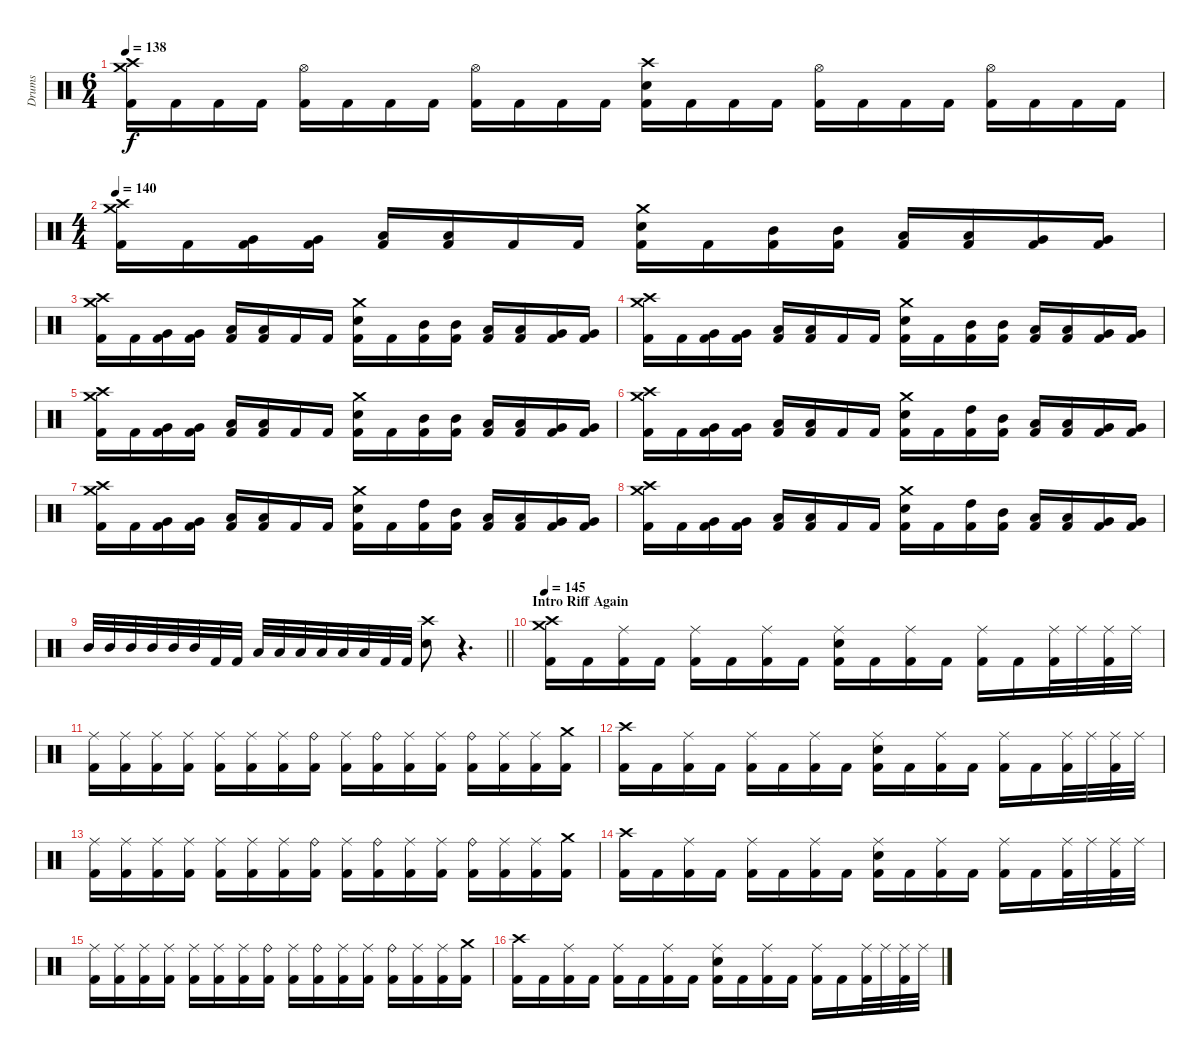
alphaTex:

\track ("Drums" "Drums") {instrument percussion}
\staff {score}
\articulation defaults
\ts (6 4)
\tempo 138
\clef neutral
\ks c
("Crash medium (hit)" "Crash high (hit)" "Kick (hit) 2").16{dy f} "Kick (hit) 2".16 "Kick (hit) 2".16 "Kick (hit) 2".16 ("Hi-Hat (open)" "Kick (hit) 2").16 "Kick (hit) 2".16 "Kick (hit) 2".16 "Kick (hit) 2".16 ("Hi-Hat (open)" "Kick (hit) 2").16 "Kick (hit) 2".16 "Kick (hit) 2".16 "Kick (hit) 2".16 ("Crash high (hit)" "Electric Snare (hit)" "Kick (hit) 2").16 "Kick (hit) 2".16 "Kick (hit) 2".16 "Kick (hit) 2".16 ("Hi-Hat (open)" "Kick (hit) 2").16 "Kick (hit) 2".16 "Kick (hit) 2".16 "Kick (hit) 2".16 ("Hi-Hat (open)" "Kick (hit) 2").16 "Kick (hit) 2".16 "Kick (hit) 2".16 "Kick (hit) 2".16 |
\ts (4 4)
\tempo 140
("Crash medium (hit)" "Crash high (hit)" "Kick (hit) 2").16 "Kick (hit) 2".16 ("Very Low Tom (hit)" "Kick (hit) 2").16 ("Very Low Tom (hit)" "Kick (hit) 2").16 ("Low Tom (hit)" "Kick (hit) 2").16 ("Low Tom (hit)" "Kick (hit) 2").16 "Kick (hit) 2".16 "Kick (hit) 2".16 ("Crash medium (hit)" "Electric Snare (hit)" "Kick (hit) 2").16 "Kick (hit) 2".16 ("Mid Tom (hit)" "Kick (hit) 2").16 ("Mid Tom (hit)" "Kick (hit) 2").16 ("Low Tom (hit)" "Kick (hit) 2").16 ("Low Tom (hit)" "Kick (hit) 2").16 ("Very Low Tom (hit)" "Kick (hit) 2").16 ("Very Low Tom (hit)" "Kick (hit) 2").16 |
("Crash medium (hit)" "Crash high (hit)" "Kick (hit) 2").16 "Kick (hit) 2".16 ("Very Low Tom (hit)" "Kick (hit) 2").16 ("Very Low Tom (hit)" "Kick (hit) 2").16 ("Low Tom (hit)" "Kick (hit) 2").16 ("Low Tom (hit)" "Kick (hit) 2").16 "Kick (hit) 2".16 "Kick (hit) 2".16 ("Crash medium (hit)" "Electric Snare (hit)" "Kick (hit) 2").16 "Kick (hit) 2".16 ("Mid Tom (hit)" "Kick (hit) 2").16 ("Mid Tom (hit)" "Kick (hit) 2").16 ("Low Tom (hit)" "Kick (hit) 2").16 ("Low Tom (hit)" "Kick (hit) 2").16 ("Very Low Tom (hit)" "Kick (hit) 2").16 ("Very Low Tom (hit)" "Kick (hit) 2").16 |
("Crash medium (hit)" "Crash high (hit)" "Kick (hit) 2").16 "Kick (hit) 2".16 ("Very Low Tom (hit)" "Kick (hit) 2").16 ("Very Low Tom (hit)" "Kick (hit) 2").16 ("Low Tom (hit)" "Kick (hit) 2").16 ("Low Tom (hit)" "Kick (hit) 2").16 "Kick (hit) 2".16 "Kick (hit) 2".16 ("Crash medium (hit)" "Electric Snare (hit)" "Kick (hit) 2").16 "Kick (hit) 2".16 ("Mid Tom (hit)" "Kick (hit) 2").16 ("Mid Tom (hit)" "Kick (hit) 2").16 ("Low Tom (hit)" "Kick (hit) 2").16 ("Low Tom (hit)" "Kick (hit) 2").16 ("Very Low Tom (hit)" "Kick (hit) 2").16 ("Very Low Tom (hit)" "Kick (hit) 2").16 |
("Crash medium (hit)" "Crash high (hit)" "Kick (hit) 2").16 "Kick (hit) 2".16 ("Very Low Tom (hit)" "Kick (hit) 2").16 ("Very Low Tom (hit)" "Kick (hit) 2").16 ("Low Tom (hit)" "Kick (hit) 2").16 ("Low Tom (hit)" "Kick (hit) 2").16 "Kick (hit) 2".16 "Kick (hit) 2".16 ("Crash medium (hit)" "Electric Snare (hit)" "Kick (hit) 2").16 "Kick (hit) 2".16 ("Mid Tom (hit)" "Kick (hit) 2").16 ("Mid Tom (hit)" "Kick (hit) 2").16 ("Low Tom (hit)" "Kick (hit) 2").16 ("Low Tom (hit)" "Kick (hit) 2").16 ("Very Low Tom (hit)" "Kick (hit) 2").16 ("Very Low Tom (hit)" "Kick (hit) 2").16 |
("Crash medium (hit)" "Crash high (hit)" "Kick (hit) 2").16 "Kick (hit) 2".16 ("Very Low Tom (hit)" "Kick (hit) 2").16 ("Very Low Tom (hit)" "Kick (hit) 2").16 ("Low Tom (hit)" "Kick (hit) 2").16 ("Low Tom (hit)" "Kick (hit) 2").16 "Kick (hit) 2".16 "Kick (hit) 2".16 ("Crash medium (hit)" "Electric Snare (hit)" "Kick (hit) 2").16 "Kick (hit) 2".16 ("High Tom (hit)" "Kick (hit) 2").16 ("Mid Tom (hit)" "Kick (hit) 2").16 ("Low Tom (hit)" "Kick (hit) 2").16 ("Low Tom (hit)" "Kick (hit) 2").16 ("Very Low Tom (hit)" "Kick (hit) 2").16 ("Very Low Tom (hit)" "Kick (hit) 2").16 |
("Crash medium (hit)" "Crash high (hit)" "Kick (hit) 2").16 "Kick (hit) 2".16 ("Very Low Tom (hit)" "Kick (hit) 2").16 ("Very Low Tom (hit)" "Kick (hit) 2").16 ("Low Tom (hit)" "Kick (hit) 2").16 ("Low Tom (hit)" "Kick (hit) 2").16 "Kick (hit) 2".16 "Kick (hit) 2".16 ("Crash medium (hit)" "Electric Snare (hit)" "Kick (hit) 2").16 "Kick (hit) 2".16 ("High Tom (hit)" "Kick (hit) 2").16 ("Mid Tom (hit)" "Kick (hit) 2").16 ("Low Tom (hit)" "Kick (hit) 2").16 ("Low Tom (hit)" "Kick (hit) 2").16 ("Very Low Tom (hit)" "Kick (hit) 2").16 ("Very Low Tom (hit)" "Kick (hit) 2").16 |
("Crash medium (hit)" "Crash high (hit)" "Kick (hit) 2").16 "Kick (hit) 2".16 ("Very Low Tom (hit)" "Kick (hit) 2").16 ("Very Low Tom (hit)" "Kick (hit) 2").16 ("Low Tom (hit)" "Kick (hit) 2").16 ("Low Tom (hit)" "Kick (hit) 2").16 "Kick (hit) 2".16 "Kick (hit) 2".16 ("Crash medium (hit)" "Electric Snare (hit)" "Kick (hit) 2").16 "Kick (hit) 2".16 ("High Tom (hit)" "Kick (hit) 2").16 ("Mid Tom (hit)" "Kick (hit) 2").16 ("Low Tom (hit)" "Kick (hit) 2").16 ("Low Tom (hit)" "Kick (hit) 2").16 ("Very Low Tom (hit)" "Kick (hit) 2").16 ("Very Low Tom (hit)" "Kick (hit) 2").16 |
\barLineRight lightlight "Mid Tom (hit)".32 "Mid Tom (hit)".32 "Mid Tom (hit)".32 "Mid Tom (hit)".32 "Mid Tom (hit)".32 "Mid Tom (hit)".32 "Kick (hit) 2".32 "Kick (hit) 2".32 "Low Tom (hit)".32 "Low Tom (hit)".32 "Low Tom (hit)".32 "Low Tom (hit)".32 "Low Tom (hit)".32 "Low Tom (hit)".32 "Kick (hit) 2".32 "Kick (hit) 2".32
("Crash high (hit)" "Electric Snare (hit)").8 r.4{d volume 0} |
\section ("" "Intro Riff Again")
\tempo 145
("Crash medium (hit)" "Crash high (hit)" "Kick (hit) 2").16{volume 13} "Kick (hit) 2".16 ("Ride (middle)" "Kick (hit) 2").16 "Kick (hit) 2".16 ("Ride (middle)" "Kick (hit) 2").16 "Kick (hit) 2".16 ("Ride (middle)" "Kick (hit) 2").16 "Kick (hit) 2".16 ("Ride (middle)" "Electric Snare (hit)" "Kick (hit) 2").16 "Kick (hit) 2".16 ("Ride (middle)" "Kick (hit) 2").16 "Kick (hit) 2".16 ("Ride (middle)" "Kick (hit) 2").16 "Kick (hit) 2".16 ("Ride (middle)" "Kick (hit) 2").32 "Ride (middle)".32 ("Ride (middle)" "Kick (hit) 2").32 "Ride (middle)".32 |
("Ride (middle)" "Kick (hit) 2").16 ("Ride (middle)" "Kick (hit) 2").16 ("Ride (middle)" "Kick (hit) 2").16 ("Ride (middle)" "Kick (hit) 2").16 ("Ride (middle)" "Kick (hit) 2").16 ("Ride (middle)" "Kick (hit) 2").16 ("Ride (middle)" "Kick (hit) 2").16 ("Ride (bell)" "Kick (hit) 2").16 ("Ride (middle)" "Kick (hit) 2").16 ("Ride (bell)" "Kick (hit) 2").16 ("Ride (middle)" "Kick (hit) 2").16 ("Ride (middle)" "Kick (hit) 2").16 ("Ride (bell)" "Kick (hit) 2").16 ("Ride (middle)" "Kick (hit) 2").16 ("Ride (middle)" "Kick (hit) 2").16 ("Crash medium (hit)" "Kick (hit) 2").16 |
("Crash high (hit)" "Kick (hit) 2").16 "Kick (hit) 2".16 ("Ride (middle)" "Kick (hit) 2").16 "Kick (hit) 2".16 ("Ride (middle)" "Kick (hit) 2").16 "Kick (hit) 2".16 ("Ride (middle)" "Kick (hit) 2").16 "Kick (hit) 2".16 ("Ride (middle)" "Electric Snare (hit)" "Kick (hit) 2").16 "Kick (hit) 2".16 ("Ride (middle)" "Kick (hit) 2").16 "Kick (hit) 2".16 ("Ride (middle)" "Kick (hit) 2").16 "Kick (hit) 2".16 ("Ride (middle)" "Kick (hit) 2").32 "Ride (middle)".32 ("Ride (middle)" "Kick (hit) 2").32 "Ride (middle)".32 |
("Ride (middle)" "Kick (hit) 2").16 ("Ride (middle)" "Kick (hit) 2").16 ("Ride (middle)" "Kick (hit) 2").16 ("Ride (middle)" "Kick (hit) 2").16 ("Ride (middle)" "Kick (hit) 2").16 ("Ride (middle)" "Kick (hit) 2").16 ("Ride (middle)" "Kick (hit) 2").16 ("Ride (bell)" "Kick (hit) 2").16 ("Ride (middle)" "Kick (hit) 2").16 ("Ride (bell)" "Kick (hit) 2").16 ("Ride (middle)" "Kick (hit) 2").16 ("Ride (middle)" "Kick (hit) 2").16 ("Ride (bell)" "Kick (hit) 2").16 ("Ride (middle)" "Kick (hit) 2").16 ("Ride (middle)" "Kick (hit) 2").16 ("Crash medium (hit)" "Kick (hit) 2").16 |
("Crash high (hit)" "Kick (hit) 2").16 "Kick (hit) 2".16 ("Ride (middle)" "Kick (hit) 2").16 "Kick (hit) 2".16 ("Ride (middle)" "Kick (hit) 2").16 "Kick (hit) 2".16 ("Ride (middle)" "Kick (hit) 2").16 "Kick (hit) 2".16 ("Ride (middle)" "Electric Snare (hit)" "Kick (hit) 2").16 "Kick (hit) 2".16 ("Ride (middle)" "Kick (hit) 2").16 "Kick (hit) 2".16 ("Ride (middle)" "Kick (hit) 2").16 "Kick (hit) 2".16 ("Ride (middle)" "Kick (hit) 2").32 "Ride (middle)".32 ("Ride (middle)" "Kick (hit) 2").32 "Ride (middle)".32 |
("Ride (middle)" "Kick (hit) 2").16 ("Ride (middle)" "Kick (hit) 2").16 ("Ride (middle)" "Kick (hit) 2").16 ("Ride (middle)" "Kick (hit) 2").16 ("Ride (middle)" "Kick (hit) 2").16 ("Ride (middle)" "Kick (hit) 2").16 ("Ride (middle)" "Kick (hit) 2").16 ("Ride (bell)" "Kick (hit) 2").16 ("Ride (middle)" "Kick (hit) 2").16 ("Ride (bell)" "Kick (hit) 2").16 ("Ride (middle)" "Kick (hit) 2").16 ("Ride (middle)" "Kick (hit) 2").16 ("Ride (bell)" "Kick (hit) 2").16 ("Ride (middle)" "Kick (hit) 2").16 ("Ride (middle)" "Kick (hit) 2").16 ("Crash medium (hit)" "Kick (hit) 2").16 |
("Crash high (hit)" "Kick (hit) 2").16 "Kick (hit) 2".16 ("Ride (middle)" "Kick (hit) 2").16 "Kick (hit) 2".16 ("Ride (middle)" "Kick (hit) 2").16 "Kick (hit) 2".16 ("Ride (middle)" "Kick (hit) 2").16 "Kick (hit) 2".16 ("Ride (middle)" "Electric Snare (hit)" "Kick (hit) 2").16 "Kick (hit) 2".16 ("Ride (middle)" "Kick (hit) 2").16 "Kick (hit) 2".16 ("Ride (middle)" "Kick (hit) 2").16 "Kick (hit) 2".16 ("Ride (middle)" "Kick (hit) 2").32 "Ride (middle)".32 ("Ride (middle)" "Kick (hit) 2").32 "Ride (middle)".32
